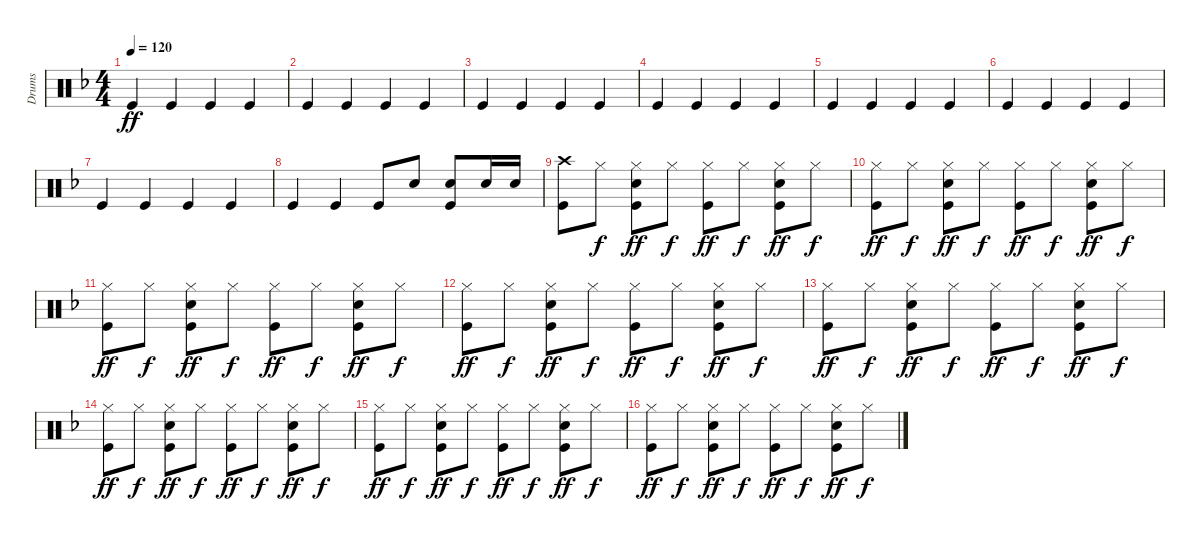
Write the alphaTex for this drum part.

\track ("Drums" "Drums") {instrument percussion}
\staff {score}
\articulation defaults
\ts (4 4)
\tempo 120
\clef neutral
\ks f "Kick (hit)".4{dy ff} "Kick (hit)".4 "Kick (hit)".4 "Kick (hit)".4
|
"Kick (hit)".4 "Kick (hit)".4 "Kick (hit)".4 "Kick (hit)".4 |
"Kick (hit)".4 "Kick (hit)".4 "Kick (hit)".4 "Kick (hit)".4 |
"Kick (hit)".4 "Kick (hit)".4 "Kick (hit)".4 "Kick (hit)".4 |
"Kick (hit)".4 "Kick (hit)".4 "Kick (hit)".4 "Kick (hit)".4 |
"Kick (hit)".4 "Kick (hit)".4 "Kick (hit)".4 "Kick (hit)".4 |
"Kick (hit)".4 "Kick (hit)".4 "Kick (hit)".4 "Kick (hit)".4 |
"Kick (hit)".4 "Kick (hit)".4 "Kick (hit)".8 "Snare (hit) 2".8 ("Snare (hit) 2" "Kick (hit)").8 "Snare (hit) 2".16 "Snare (hit) 2".16 |
("Crash high (hit)" "Kick (hit)").8 "Hi-Hat (closed)".8{dy f} ("Hi-Hat (closed)" "Snare (hit) 2" "Kick (hit)").8{dy ff} "Hi-Hat (closed)".8{dy f} ("Hi-Hat (closed)" "Kick (hit)").8{dy ff} "Hi-Hat (closed)".8{dy f} ("Hi-Hat (closed)" "Snare (hit) 2" "Kick (hit)").8{dy ff} "Hi-Hat (closed)".8{dy f} |
("Hi-Hat (closed)" "Kick (hit)").8{dy ff} "Hi-Hat (closed)".8{dy f} ("Hi-Hat (closed)" "Snare (hit) 2" "Kick (hit)").8{dy ff} "Hi-Hat (closed)".8{dy f} ("Hi-Hat (closed)" "Kick (hit)").8{dy ff} "Hi-Hat (closed)".8{dy f} ("Hi-Hat (closed)" "Snare (hit) 2" "Kick (hit)").8{dy ff} "Hi-Hat (closed)".8{dy f} |
("Hi-Hat (closed)" "Kick (hit)").8{dy ff} "Hi-Hat (closed)".8{dy f} ("Hi-Hat (closed)" "Snare (hit) 2" "Kick (hit)").8{dy ff} "Hi-Hat (closed)".8{dy f} ("Hi-Hat (closed)" "Kick (hit)").8{dy ff} "Hi-Hat (closed)".8{dy f} ("Hi-Hat (closed)" "Snare (hit) 2" "Kick (hit)").8{dy ff} "Hi-Hat (closed)".8{dy f} |
("Hi-Hat (closed)" "Kick (hit)").8{dy ff} "Hi-Hat (closed)".8{dy f} ("Hi-Hat (closed)" "Snare (hit) 2" "Kick (hit)").8{dy ff} "Hi-Hat (closed)".8{dy f} ("Hi-Hat (closed)" "Kick (hit)").8{dy ff} "Hi-Hat (closed)".8{dy f} ("Hi-Hat (closed)" "Snare (hit) 2" "Kick (hit)").8{dy ff} "Hi-Hat (closed)".8{dy f} |
("Hi-Hat (closed)" "Kick (hit)").8{dy ff} "Hi-Hat (closed)".8{dy f} ("Hi-Hat (closed)" "Snare (hit) 2" "Kick (hit)").8{dy ff} "Hi-Hat (closed)".8{dy f} ("Hi-Hat (closed)" "Kick (hit)").8{dy ff} "Hi-Hat (closed)".8{dy f} ("Hi-Hat (closed)" "Snare (hit) 2" "Kick (hit)").8{dy ff} "Hi-Hat (closed)".8{dy f} |
("Hi-Hat (closed)" "Kick (hit)").8{dy ff} "Hi-Hat (closed)".8{dy f} ("Hi-Hat (closed)" "Snare (hit) 2" "Kick (hit)").8{dy ff} "Hi-Hat (closed)".8{dy f} ("Hi-Hat (closed)" "Kick (hit)").8{dy ff} "Hi-Hat (closed)".8{dy f} ("Hi-Hat (closed)" "Snare (hit) 2" "Kick (hit)").8{dy ff} "Hi-Hat (closed)".8{dy f} |
("Hi-Hat (closed)" "Kick (hit)").8{dy ff} "Hi-Hat (closed)".8{dy f} ("Hi-Hat (closed)" "Snare (hit) 2" "Kick (hit)").8{dy ff} "Hi-Hat (closed)".8{dy f} ("Hi-Hat (closed)" "Kick (hit)").8{dy ff} "Hi-Hat (closed)".8{dy f} ("Hi-Hat (closed)" "Snare (hit) 2" "Kick (hit)").8{dy ff} "Hi-Hat (closed)".8{dy f} |
("Hi-Hat (closed)" "Kick (hit)").8{dy ff} "Hi-Hat (closed)".8{dy f} ("Hi-Hat (closed)" "Snare (hit) 2" "Kick (hit)").8{dy ff} "Hi-Hat (closed)".8{dy f} ("Hi-Hat (closed)" "Kick (hit)").8{dy ff} "Hi-Hat (closed)".8{dy f} ("Hi-Hat (closed)" "Snare (hit) 2" "Kick (hit)").8{dy ff} "Hi-Hat (closed)".8{dy f}
